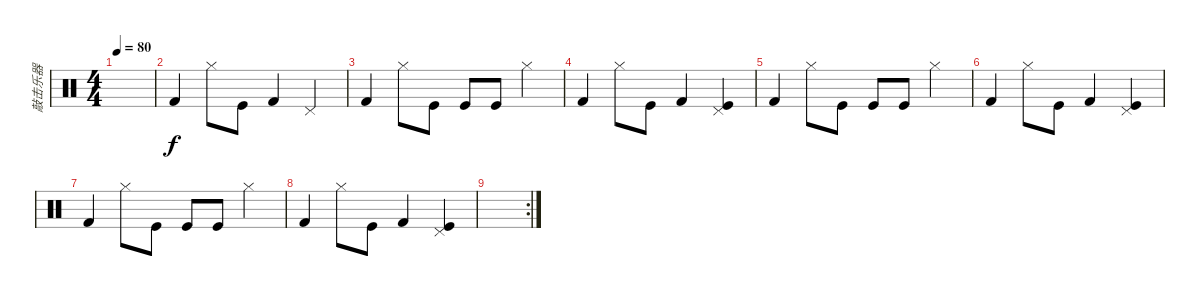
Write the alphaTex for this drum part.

\track ("敲击乐器" "敲击乐器") {instrument percussion}
\staff {score}
\articulation defaults
\ts (4 4)
\tempo 80
\clef neutral
\ks c
|
"Kick (hit) 2".4 "Hi-Hat (closed)".8 "Kick (hit)".8 "Kick (hit) 2".4 "Pedal Hi-Hat (hit)".4 |
"Kick (hit) 2".4 "Hi-Hat (closed)".8 "Kick (hit)".8 "Kick (hit)".8 "Kick (hit)".8 "Hi-Hat (closed)".4 |
"Kick (hit) 2".4 "Hi-Hat (closed)".8 "Kick (hit)".8 "Kick (hit) 2".4 ("Pedal Hi-Hat (hit)" "Kick (hit)").4 |
"Kick (hit) 2".4 "Hi-Hat (closed)".8 "Kick (hit)".8 "Kick (hit)".8 "Kick (hit)".8 "Hi-Hat (closed)".4 |
"Kick (hit) 2".4 "Hi-Hat (closed)".8 "Kick (hit)".8 "Kick (hit) 2".4 ("Pedal Hi-Hat (hit)" "Kick (hit)").4 |
"Kick (hit) 2".4 "Hi-Hat (closed)".8 "Kick (hit)".8 "Kick (hit)".8 "Kick (hit)".8 "Hi-Hat (closed)".4 |
"Kick (hit) 2".4 "Hi-Hat (closed)".8 "Kick (hit)".8 "Kick (hit) 2".4 ("Pedal Hi-Hat (hit)" "Kick (hit)").4 |
\rc 2
